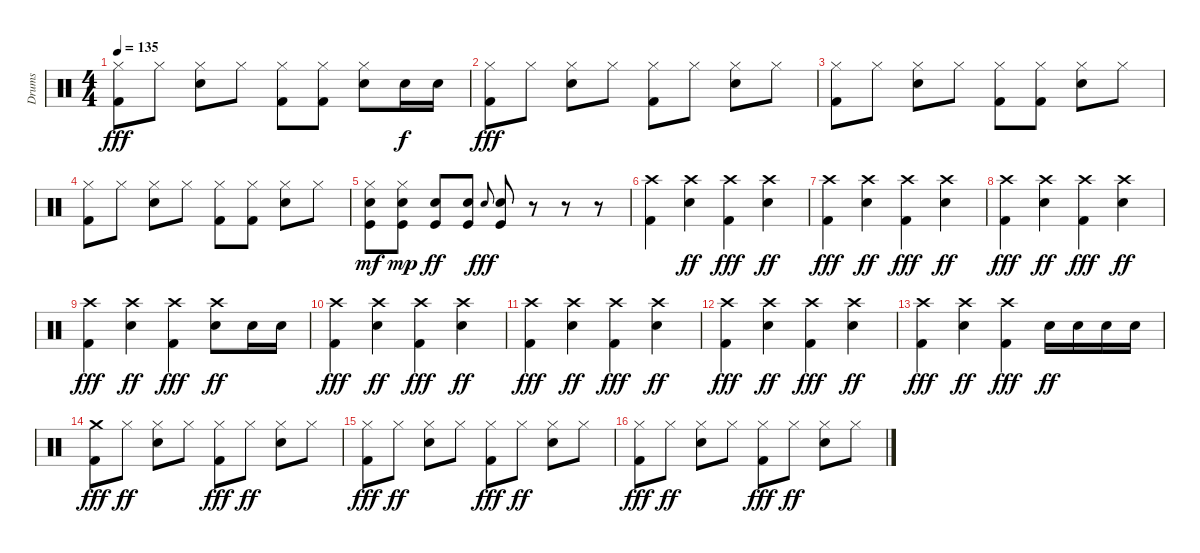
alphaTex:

\track ("Drums" "Drums") {instrument percussion}
\staff {score}
\articulation defaults
\ts (4 4)
\tempo 135
\clef neutral
\ks c
("Hi-Hat (closed)" "Kick (hit) 2").8{dy fff} "Hi-Hat (closed)".8 ("Hi-Hat (closed)" "Snare (hit) 2").8 "Hi-Hat (closed)".8 ("Hi-Hat (closed)" "Kick (hit) 2").8 ("Hi-Hat (closed)" "Kick (hit) 2").8 ("Hi-Hat (closed)" "Snare (hit) 2").8 "Snare (hit) 2".16{dy f} "Snare (hit) 2".16 |
("Hi-Hat (closed)" "Kick (hit) 2").8{dy fff} "Hi-Hat (closed)".8 ("Hi-Hat (closed)" "Snare (hit) 2").8 "Hi-Hat (closed)".8 ("Hi-Hat (closed)" "Kick (hit) 2").8 "Hi-Hat (closed)".8 ("Hi-Hat (closed)" "Snare (hit) 2").8 "Hi-Hat (closed)".8 |
("Hi-Hat (closed)" "Kick (hit) 2").8 "Hi-Hat (closed)".8 ("Hi-Hat (closed)" "Snare (hit) 2").8 "Hi-Hat (closed)".8 ("Hi-Hat (closed)" "Kick (hit) 2").8 ("Hi-Hat (closed)" "Kick (hit) 2").8 ("Hi-Hat (closed)" "Snare (hit) 2").8 "Hi-Hat (closed)".8 |
("Hi-Hat (closed)" "Kick (hit) 2").8 "Hi-Hat (closed)".8 ("Hi-Hat (closed)" "Snare (hit) 2").8 "Hi-Hat (closed)".8 ("Hi-Hat (closed)" "Kick (hit) 2").8 ("Hi-Hat (closed)" "Kick (hit) 2").8 ("Hi-Hat (closed)" "Snare (hit) 2").8 "Hi-Hat (closed)".8 |
("Hi-Hat (closed)" "Snare (hit) 2" "Kick (hit)").8{dy mf} ("Hi-Hat (closed)" "Snare (hit) 2" "Kick (hit)").8{dy mp} ("Snare (hit) 2" "Kick (hit)").8{dy ff} ("Snare (hit) 2" "Kick (hit)").8 "Snare (hit) 2".8{gr onbeat dy fff} ("Snare (hit) 2" "Kick (hit)").8 r.8 r.8 r.8 |
("Crash high (hit)" "Kick (hit) 2").4 ("Crash high (hit)" "Snare (hit) 2").4{dy ff} ("Crash high (hit)" "Kick (hit) 2").4{dy fff} ("Crash high (hit)" "Snare (hit) 2").4{dy ff} |
("Crash high (hit)" "Kick (hit) 2").4{dy fff} ("Crash high (hit)" "Snare (hit) 2").4{dy ff} ("Crash high (hit)" "Kick (hit) 2").4{dy fff} ("Crash high (hit)" "Snare (hit) 2").4{dy ff} |
("Crash high (hit)" "Kick (hit) 2").4{dy fff} ("Crash high (hit)" "Snare (hit) 2").4{dy ff} ("Crash high (hit)" "Kick (hit) 2").4{dy fff} ("Crash high (hit)" "Snare (hit) 2").4{dy ff} |
("Crash high (hit)" "Kick (hit) 2").4{dy fff} ("Crash high (hit)" "Snare (hit) 2").4{dy ff} ("Crash high (hit)" "Kick (hit) 2").4{dy fff} ("Crash high (hit)" "Snare (hit) 2").8{dy ff} "Snare (hit) 2".16 "Snare (hit) 2".16 |
("Crash high (hit)" "Kick (hit) 2").4{dy fff} ("Crash high (hit)" "Snare (hit) 2").4{dy ff} ("Crash high (hit)" "Kick (hit) 2").4{dy fff} ("Crash high (hit)" "Snare (hit) 2").4{dy ff} |
("Crash high (hit)" "Kick (hit) 2").4{dy fff} ("Crash high (hit)" "Snare (hit) 2").4{dy ff} ("Crash high (hit)" "Kick (hit) 2").4{dy fff} ("Crash high (hit)" "Snare (hit) 2").4{dy ff} |
("Crash high (hit)" "Kick (hit) 2").4{dy fff} ("Crash high (hit)" "Snare (hit) 2").4{dy ff} ("Crash high (hit)" "Kick (hit) 2").4{dy fff} ("Crash high (hit)" "Snare (hit) 2").4{dy ff} |
("Crash high (hit)" "Kick (hit) 2").4{dy fff} ("Crash high (hit)" "Snare (hit) 2").4{dy ff} ("Crash high (hit)" "Kick (hit) 2").4{dy fff} "Snare (hit) 2".16{dy ff} "Snare (hit) 2".16 "Snare (hit) 2".16 "Snare (hit) 2".16 |
("Crash medium (hit)" "Kick (hit) 2").8{dy fff} "Hi-Hat (closed)".8{dy ff} ("Hi-Hat (closed)" "Snare (hit) 2").8 "Hi-Hat (closed)".8 ("Hi-Hat (closed)" "Kick (hit) 2").8{dy fff} "Hi-Hat (closed)".8{dy ff} ("Hi-Hat (closed)" "Snare (hit) 2").8 "Hi-Hat (closed)".8 |
("Hi-Hat (closed)" "Kick (hit) 2").8{dy fff} "Hi-Hat (closed)".8{dy ff} ("Hi-Hat (closed)" "Snare (hit) 2").8 "Hi-Hat (closed)".8 ("Hi-Hat (closed)" "Kick (hit) 2").8{dy fff} "Hi-Hat (closed)".8{dy ff} ("Hi-Hat (closed)" "Snare (hit) 2").8 "Hi-Hat (closed)".8 |
("Hi-Hat (closed)" "Kick (hit) 2").8{dy fff} "Hi-Hat (closed)".8{dy ff} ("Hi-Hat (closed)" "Snare (hit) 2").8 "Hi-Hat (closed)".8 ("Hi-Hat (closed)" "Kick (hit) 2").8{dy fff} "Hi-Hat (closed)".8{dy ff} ("Hi-Hat (closed)" "Snare (hit) 2").8 "Hi-Hat (closed)".8
